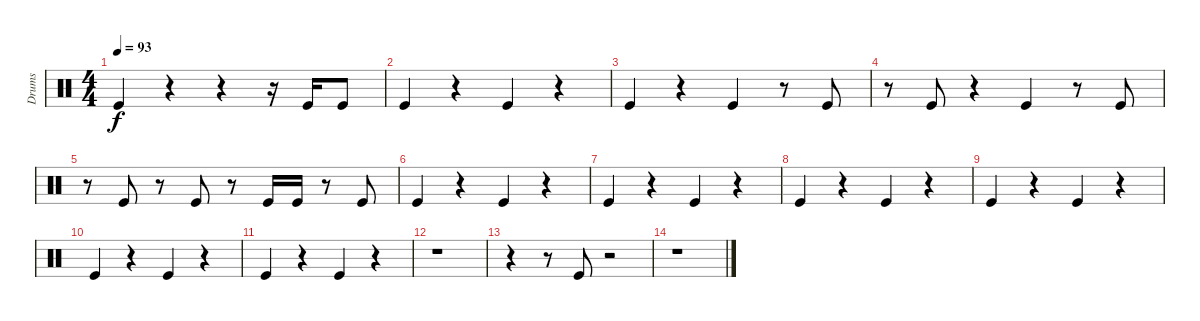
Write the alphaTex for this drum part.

\track ("Drums" "Drums") {instrument percussion}
\staff {score}
\articulation defaults
\ts (4 4)
\tempo 93
\clef neutral
\ks c "Kick (hit)".4{dy f}
r.4 r.4 r.16 "Kick (hit)".16 "Kick (hit)".8 |
"Kick (hit)".4 r.4 "Kick (hit)".4 r.4 |
"Kick (hit)".4 r.4 "Kick (hit)".4 r.8 "Kick (hit)".8 |
r.8 "Kick (hit)".8 r.4 "Kick (hit)".4 r.8 "Kick (hit)".8 |
r.8 "Kick (hit)".8 r.8 "Kick (hit)".8 r.8 "Kick (hit)".16 "Kick (hit)".16 r.8 "Kick (hit)".8 |
"Kick (hit)".4 r.4 "Kick (hit)".4 r.4 |
"Kick (hit)".4 r.4 "Kick (hit)".4 r.4 |
"Kick (hit)".4 r.4 "Kick (hit)".4 r.4 |
"Kick (hit)".4 r.4 "Kick (hit)".4 r.4 |
"Kick (hit)".4 r.4 "Kick (hit)".4 r.4 |
"Kick (hit)".4 r.4 "Kick (hit)".4 r.4 |
r.1 |
r.4 r.8 "Kick (hit)".8 r.2 |
r.1
